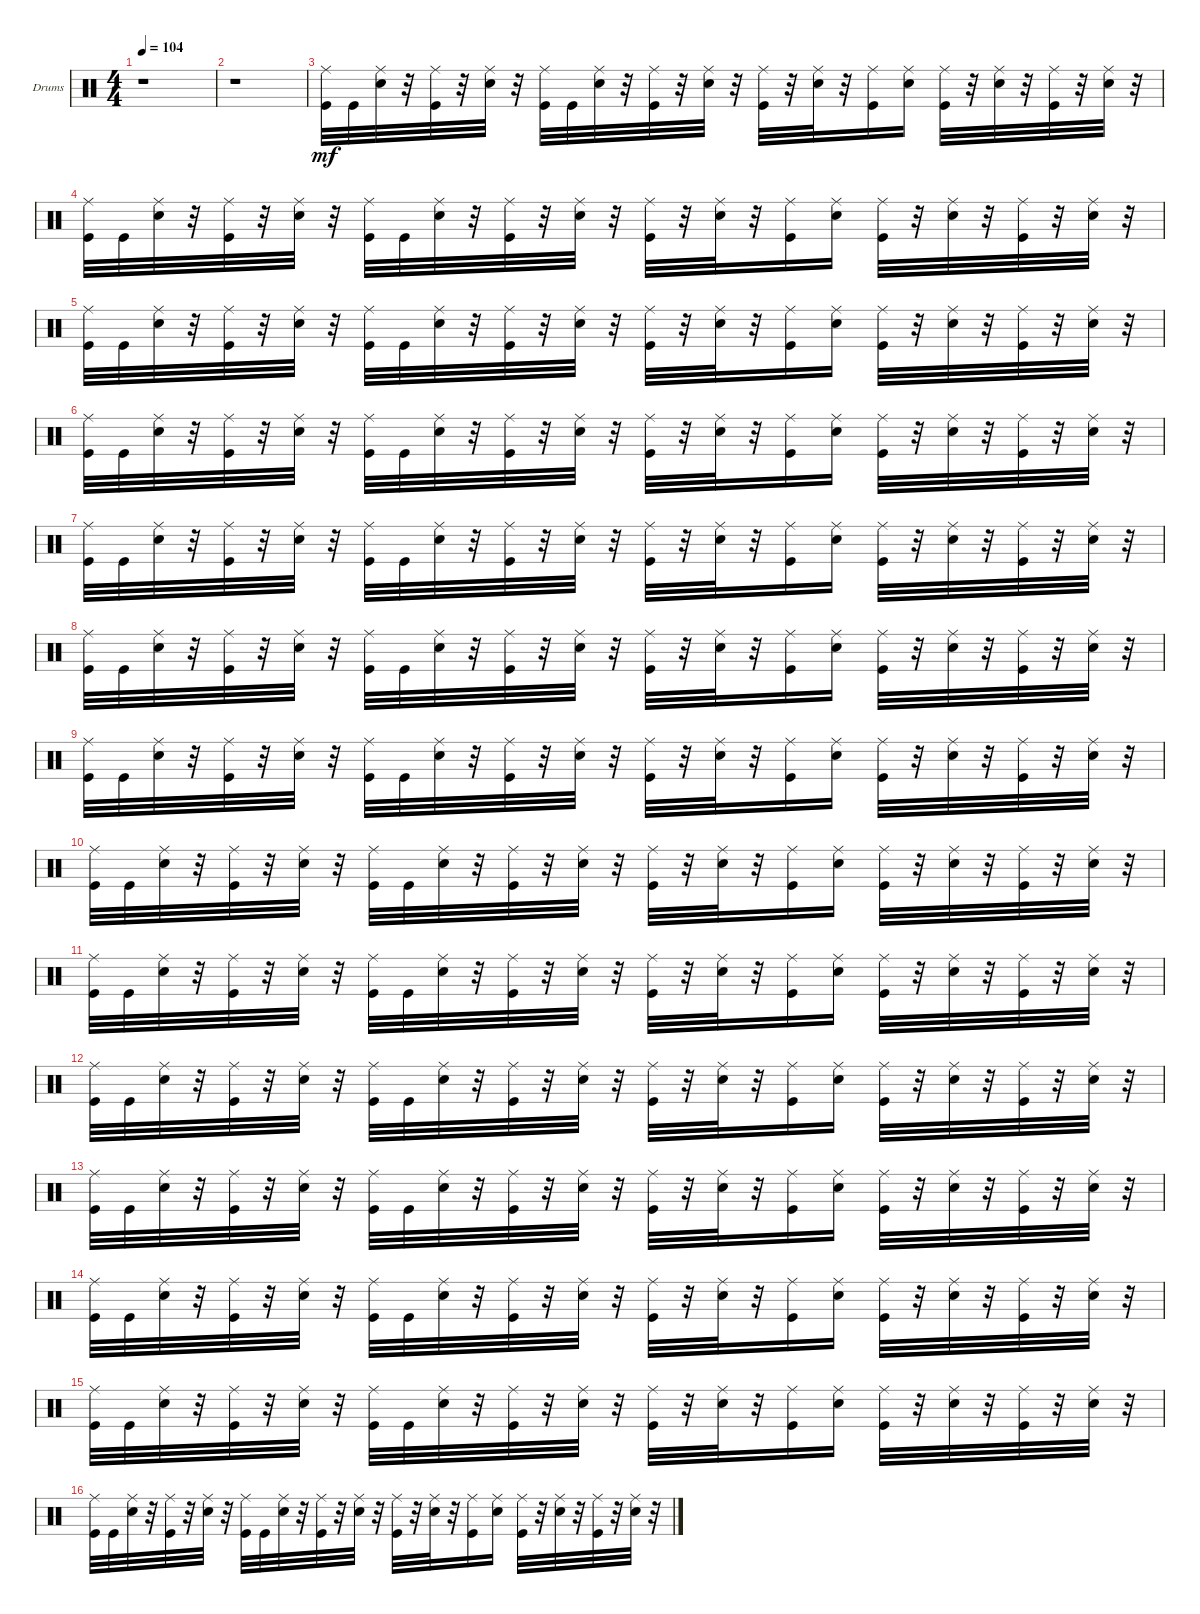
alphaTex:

\bracketExtendMode groupsimilarinstruments
\firstSystemTrackNameOrientation horizontal
\otherSystemsTrackNameOrientation horizontal
\track ("diviners drum" "Drums") {instrument percussion}
\staff {score}
\articulation defaults
\ts (4 4)
\tempo 104
\clef neutral
\ks c
r.1{dy mf} |
r.1 |
("Kick (hit)" "Ride (middle)").32 "Kick (hit)".32 ("Snare (hit) 2" "Ride (middle)").32 r.32 ("Kick (hit)" "Ride (middle)").32 r.32 ("Snare (hit) 2" "Ride (middle)").32 r.32 ("Kick (hit)" "Ride (middle)").32 "Kick (hit)".32 ("Snare (hit) 2" "Ride (middle)").32 r.32 ("Kick (hit)" "Ride (middle)").32 r.32 ("Snare (hit) 2" "Ride (middle)").32 r.32 ("Kick (hit)" "Ride (middle)").32 r.32 ("Snare (hit) 2" "Ride (middle)").32 r.32 ("Kick (hit)" "Ride (middle)").16 ("Snare (hit) 2" "Ride (middle)").16 ("Kick (hit)" "Ride (middle)").32 r.32 ("Snare (hit) 2" "Ride (middle)").32 r.32 ("Kick (hit)" "Ride (middle)").32 r.32 ("Snare (hit) 2" "Ride (middle)").32 r.32 |
("Kick (hit)" "Ride (middle)").32 "Kick (hit)".32 ("Snare (hit) 2" "Ride (middle)").32 r.32 ("Kick (hit)" "Ride (middle)").32 r.32 ("Snare (hit) 2" "Ride (middle)").32 r.32 ("Kick (hit)" "Ride (middle)").32 "Kick (hit)".32 ("Snare (hit) 2" "Ride (middle)").32 r.32 ("Kick (hit)" "Ride (middle)").32 r.32 ("Snare (hit) 2" "Ride (middle)").32 r.32 ("Kick (hit)" "Ride (middle)").32 r.32 ("Snare (hit) 2" "Ride (middle)").32 r.32 ("Kick (hit)" "Ride (middle)").16 ("Snare (hit) 2" "Ride (middle)").16 ("Kick (hit)" "Ride (middle)").32 r.32 ("Snare (hit) 2" "Ride (middle)").32 r.32 ("Kick (hit)" "Ride (middle)").32 r.32 ("Snare (hit) 2" "Ride (middle)").32 r.32 |
("Kick (hit)" "Ride (middle)").32 "Kick (hit)".32 ("Snare (hit) 2" "Ride (middle)").32 r.32 ("Kick (hit)" "Ride (middle)").32 r.32 ("Snare (hit) 2" "Ride (middle)").32 r.32 ("Kick (hit)" "Ride (middle)").32 "Kick (hit)".32 ("Snare (hit) 2" "Ride (middle)").32 r.32 ("Kick (hit)" "Ride (middle)").32 r.32 ("Snare (hit) 2" "Ride (middle)").32 r.32 ("Kick (hit)" "Ride (middle)").32 r.32 ("Snare (hit) 2" "Ride (middle)").32 r.32 ("Kick (hit)" "Ride (middle)").16 ("Snare (hit) 2" "Ride (middle)").16 ("Kick (hit)" "Ride (middle)").32 r.32 ("Snare (hit) 2" "Ride (middle)").32 r.32 ("Kick (hit)" "Ride (middle)").32 r.32 ("Snare (hit) 2" "Ride (middle)").32 r.32 |
("Kick (hit)" "Ride (middle)").32 "Kick (hit)".32 ("Snare (hit) 2" "Ride (middle)").32 r.32 ("Kick (hit)" "Ride (middle)").32 r.32 ("Snare (hit) 2" "Ride (middle)").32 r.32 ("Kick (hit)" "Ride (middle)").32 "Kick (hit)".32 ("Snare (hit) 2" "Ride (middle)").32 r.32 ("Kick (hit)" "Ride (middle)").32 r.32 ("Snare (hit) 2" "Ride (middle)").32 r.32 ("Kick (hit)" "Ride (middle)").32 r.32 ("Snare (hit) 2" "Ride (middle)").32 r.32 ("Kick (hit)" "Ride (middle)").16 ("Snare (hit) 2" "Ride (middle)").16 ("Kick (hit)" "Ride (middle)").32 r.32 ("Snare (hit) 2" "Ride (middle)").32 r.32 ("Kick (hit)" "Ride (middle)").32 r.32 ("Snare (hit) 2" "Ride (middle)").32 r.32 |
("Kick (hit)" "Ride (middle)").32 "Kick (hit)".32 ("Snare (hit) 2" "Ride (middle)").32 r.32 ("Kick (hit)" "Ride (middle)").32 r.32 ("Snare (hit) 2" "Ride (middle)").32 r.32 ("Kick (hit)" "Ride (middle)").32 "Kick (hit)".32 ("Snare (hit) 2" "Ride (middle)").32 r.32 ("Kick (hit)" "Ride (middle)").32 r.32 ("Snare (hit) 2" "Ride (middle)").32 r.32 ("Kick (hit)" "Ride (middle)").32 r.32 ("Snare (hit) 2" "Ride (middle)").32 r.32 ("Kick (hit)" "Ride (middle)").16 ("Snare (hit) 2" "Ride (middle)").16 ("Kick (hit)" "Ride (middle)").32 r.32 ("Snare (hit) 2" "Ride (middle)").32 r.32 ("Kick (hit)" "Ride (middle)").32 r.32 ("Snare (hit) 2" "Ride (middle)").32 r.32 |
("Kick (hit)" "Ride (middle)").32 "Kick (hit)".32 ("Snare (hit) 2" "Ride (middle)").32 r.32 ("Kick (hit)" "Ride (middle)").32 r.32 ("Snare (hit) 2" "Ride (middle)").32 r.32 ("Kick (hit)" "Ride (middle)").32 "Kick (hit)".32 ("Snare (hit) 2" "Ride (middle)").32 r.32 ("Kick (hit)" "Ride (middle)").32 r.32 ("Snare (hit) 2" "Ride (middle)").32 r.32 ("Kick (hit)" "Ride (middle)").32 r.32 ("Snare (hit) 2" "Ride (middle)").32 r.32 ("Kick (hit)" "Ride (middle)").16 ("Snare (hit) 2" "Ride (middle)").16 ("Kick (hit)" "Ride (middle)").32 r.32 ("Snare (hit) 2" "Ride (middle)").32 r.32 ("Kick (hit)" "Ride (middle)").32 r.32 ("Snare (hit) 2" "Ride (middle)").32 r.32 |
("Kick (hit)" "Ride (middle)").32 "Kick (hit)".32 ("Snare (hit) 2" "Ride (middle)").32 r.32 ("Kick (hit)" "Ride (middle)").32 r.32 ("Snare (hit) 2" "Ride (middle)").32 r.32 ("Kick (hit)" "Ride (middle)").32 "Kick (hit)".32 ("Snare (hit) 2" "Ride (middle)").32 r.32 ("Kick (hit)" "Ride (middle)").32 r.32 ("Snare (hit) 2" "Ride (middle)").32 r.32 ("Kick (hit)" "Ride (middle)").32 r.32 ("Snare (hit) 2" "Ride (middle)").32 r.32 ("Kick (hit)" "Ride (middle)").16 ("Snare (hit) 2" "Ride (middle)").16 ("Kick (hit)" "Ride (middle)").32 r.32 ("Snare (hit) 2" "Ride (middle)").32 r.32 ("Kick (hit)" "Ride (middle)").32 r.32 ("Snare (hit) 2" "Ride (middle)").32 r.32 |
("Kick (hit)" "Ride (middle)").32 "Kick (hit)".32 ("Snare (hit) 2" "Ride (middle)").32 r.32 ("Kick (hit)" "Ride (middle)").32 r.32 ("Snare (hit) 2" "Ride (middle)").32 r.32 ("Kick (hit)" "Ride (middle)").32 "Kick (hit)".32 ("Snare (hit) 2" "Ride (middle)").32 r.32 ("Kick (hit)" "Ride (middle)").32 r.32 ("Snare (hit) 2" "Ride (middle)").32 r.32 ("Kick (hit)" "Ride (middle)").32 r.32 ("Snare (hit) 2" "Ride (middle)").32 r.32 ("Kick (hit)" "Ride (middle)").16 ("Snare (hit) 2" "Ride (middle)").16 ("Kick (hit)" "Ride (middle)").32 r.32 ("Snare (hit) 2" "Ride (middle)").32 r.32 ("Kick (hit)" "Ride (middle)").32 r.32 ("Snare (hit) 2" "Ride (middle)").32 r.32 |
("Kick (hit)" "Ride (middle)").32 "Kick (hit)".32 ("Snare (hit) 2" "Ride (middle)").32 r.32 ("Kick (hit)" "Ride (middle)").32 r.32 ("Snare (hit) 2" "Ride (middle)").32 r.32 ("Kick (hit)" "Ride (middle)").32 "Kick (hit)".32 ("Snare (hit) 2" "Ride (middle)").32 r.32 ("Kick (hit)" "Ride (middle)").32 r.32 ("Snare (hit) 2" "Ride (middle)").32 r.32 ("Kick (hit)" "Ride (middle)").32 r.32 ("Snare (hit) 2" "Ride (middle)").32 r.32 ("Kick (hit)" "Ride (middle)").16 ("Snare (hit) 2" "Ride (middle)").16 ("Kick (hit)" "Ride (middle)").32 r.32 ("Snare (hit) 2" "Ride (middle)").32 r.32 ("Kick (hit)" "Ride (middle)").32 r.32 ("Snare (hit) 2" "Ride (middle)").32 r.32 |
("Kick (hit)" "Ride (middle)").32 "Kick (hit)".32 ("Snare (hit) 2" "Ride (middle)").32 r.32 ("Kick (hit)" "Ride (middle)").32 r.32 ("Snare (hit) 2" "Ride (middle)").32 r.32 ("Kick (hit)" "Ride (middle)").32 "Kick (hit)".32 ("Snare (hit) 2" "Ride (middle)").32 r.32 ("Kick (hit)" "Ride (middle)").32 r.32 ("Snare (hit) 2" "Ride (middle)").32 r.32 ("Kick (hit)" "Ride (middle)").32 r.32 ("Snare (hit) 2" "Ride (middle)").32 r.32 ("Kick (hit)" "Ride (middle)").16 ("Snare (hit) 2" "Ride (middle)").16 ("Kick (hit)" "Ride (middle)").32 r.32 ("Snare (hit) 2" "Ride (middle)").32 r.32 ("Kick (hit)" "Ride (middle)").32 r.32 ("Snare (hit) 2" "Ride (middle)").32 r.32 |
("Kick (hit)" "Ride (middle)").32 "Kick (hit)".32 ("Snare (hit) 2" "Ride (middle)").32 r.32 ("Kick (hit)" "Ride (middle)").32 r.32 ("Snare (hit) 2" "Ride (middle)").32 r.32 ("Kick (hit)" "Ride (middle)").32 "Kick (hit)".32 ("Snare (hit) 2" "Ride (middle)").32 r.32 ("Kick (hit)" "Ride (middle)").32 r.32 ("Snare (hit) 2" "Ride (middle)").32 r.32 ("Kick (hit)" "Ride (middle)").32 r.32 ("Snare (hit) 2" "Ride (middle)").32 r.32 ("Kick (hit)" "Ride (middle)").16 ("Snare (hit) 2" "Ride (middle)").16 ("Kick (hit)" "Ride (middle)").32 r.32 ("Snare (hit) 2" "Ride (middle)").32 r.32 ("Kick (hit)" "Ride (middle)").32 r.32 ("Snare (hit) 2" "Ride (middle)").32 r.32 |
("Kick (hit)" "Ride (middle)").32 "Kick (hit)".32 ("Snare (hit) 2" "Ride (middle)").32 r.32 ("Kick (hit)" "Ride (middle)").32 r.32 ("Snare (hit) 2" "Ride (middle)").32 r.32 ("Kick (hit)" "Ride (middle)").32 "Kick (hit)".32 ("Snare (hit) 2" "Ride (middle)").32 r.32 ("Kick (hit)" "Ride (middle)").32 r.32 ("Snare (hit) 2" "Ride (middle)").32 r.32 ("Kick (hit)" "Ride (middle)").32 r.32 ("Snare (hit) 2" "Ride (middle)").32 r.32 ("Kick (hit)" "Ride (middle)").16 ("Snare (hit) 2" "Ride (middle)").16 ("Kick (hit)" "Ride (middle)").32 r.32 ("Snare (hit) 2" "Ride (middle)").32 r.32 ("Kick (hit)" "Ride (middle)").32 r.32 ("Snare (hit) 2" "Ride (middle)").32 r.32 |
("Kick (hit)" "Ride (middle)").32 "Kick (hit)".32 ("Snare (hit) 2" "Ride (middle)").32 r.32 ("Kick (hit)" "Ride (middle)").32 r.32 ("Snare (hit) 2" "Ride (middle)").32 r.32 ("Kick (hit)" "Ride (middle)").32 "Kick (hit)".32 ("Snare (hit) 2" "Ride (middle)").32 r.32 ("Kick (hit)" "Ride (middle)").32 r.32 ("Snare (hit) 2" "Ride (middle)").32 r.32 ("Kick (hit)" "Ride (middle)").32 r.32 ("Snare (hit) 2" "Ride (middle)").32 r.32 ("Kick (hit)" "Ride (middle)").16 ("Snare (hit) 2" "Ride (middle)").16 ("Kick (hit)" "Ride (middle)").32 r.32 ("Snare (hit) 2" "Ride (middle)").32 r.32 ("Kick (hit)" "Ride (middle)").32 r.32 ("Snare (hit) 2" "Ride (middle)").32 r.32 |
("Kick (hit)" "Ride (middle)").32 "Kick (hit)".32 ("Snare (hit) 2" "Ride (middle)").32 r.32 ("Kick (hit)" "Ride (middle)").32 r.32 ("Snare (hit) 2" "Ride (middle)").32 r.32 ("Kick (hit)" "Ride (middle)").32 "Kick (hit)".32 ("Snare (hit) 2" "Ride (middle)").32 r.32 ("Kick (hit)" "Ride (middle)").32 r.32 ("Snare (hit) 2" "Ride (middle)").32 r.32 ("Kick (hit)" "Ride (middle)").32 r.32 ("Snare (hit) 2" "Ride (middle)").32 r.32 ("Kick (hit)" "Ride (middle)").16 ("Snare (hit) 2" "Ride (middle)").16 ("Kick (hit)" "Ride (middle)").32 r.32 ("Snare (hit) 2" "Ride (middle)").32 r.32 ("Kick (hit)" "Ride (middle)").32 r.32 ("Snare (hit) 2" "Ride (middle)").32 r.32
